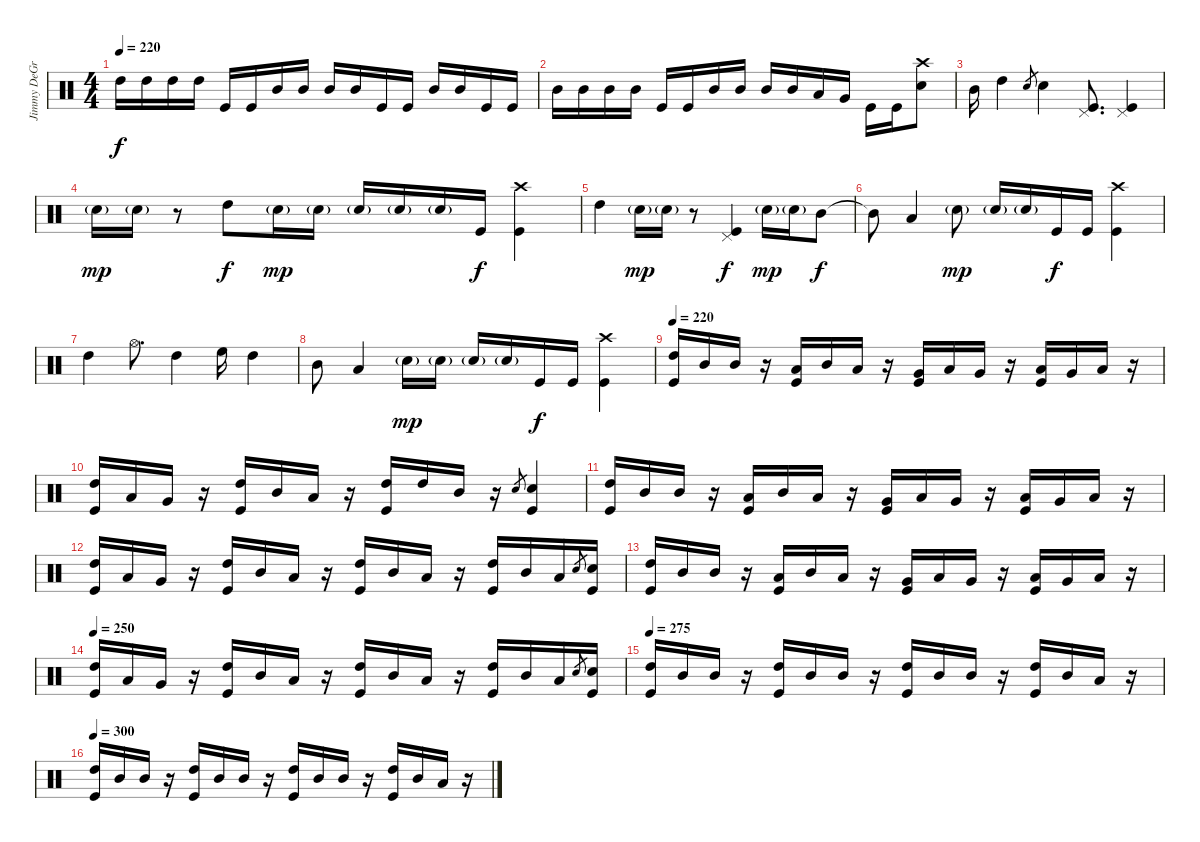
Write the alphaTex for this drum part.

\track ("Jimmy DeGrasso" "Jimmy DeGr") {instrument percussion}
\staff {score}
\articulation defaults
\ts (4 4)
\tempo 220
\clef neutral
\ks c "High Tom (hit)".16{dy f} "High Tom (hit)".16 "High Tom (hit)".16 "High Tom (hit)".16 "Kick (hit)".16 "Kick (hit)".16 "Mid Tom (hit)".16 "Mid Tom (hit)".16 "Mid Tom (hit)".16 "Mid Tom (hit)".16 "Kick (hit)".16 "Kick (hit)".16 "Mid Tom (hit)".16 "Mid Tom (hit)".16 "Kick (hit)".16 "Kick (hit)".16
|
"Mid Tom (hit)".16 "Mid Tom (hit)".16 "Mid Tom (hit)".16 "Mid Tom (hit)".16 "Kick (hit)".16 "Kick (hit)".16 "Mid Tom (hit)".16 "Mid Tom (hit)".16 "Mid Tom (hit)".16 "Mid Tom (hit)".16 "Low Tom (hit)".16 "Very Low Tom (hit)".16 "Kick (hit)".16 "Kick (hit)".16 ("Crash high (hit)" "Snare (hit) 2").8 |
"Mid Tom (hit)".16 "High Tom (hit)".4 "Snare (hit) 2".8{gr} "Snare (hit) 2".4 ("Pedal Hi-Hat (hit)" "Kick (hit)").8{d} ("Pedal Hi-Hat (hit)" "Kick (hit)").4 |
"Snare (hit) 2"{g}.16{dy mp} "Snare (hit) 2"{g}.16 r.8 "High Tom (hit)".8{dy f} "Snare (hit) 2"{g}.16{dy mp} "Snare (hit) 2"{g}.16 "Snare (hit) 2"{g}.16 "Snare (hit) 2"{g}.16 "Snare (hit) 2"{g}.16 "Kick (hit)".16{dy f} ("Crash high (hit)" "Kick (hit)").4 |
"High Tom (hit)".4 "Snare (hit) 2"{g}.16{dy mp} "Snare (hit) 2"{g}.16 r.8 ("Pedal Hi-Hat (hit)" "Kick (hit)").4{dy f} "Snare (hit) 2"{g}.16{dy mp} "Snare (hit) 2"{g}.16 "Mid Tom (hit)".8{dy f} |
"Mid Tom (hit)"{t}.8 "Low Tom (hit)".4 "Snare (hit) 2"{g}.8{dy mp} "Snare (hit) 2"{g}.16 "Snare (hit) 2"{g}.16 "Kick (hit)".16{dy f} "Kick (hit)".16 ("Crash high (hit)" "Kick (hit)").4 |
"High Tom (hit)".4 "Hi-Hat (open)".8{d} "High Tom (hit)".4 "High Floor Tom (hit)".16 "High Tom (hit)".4 |
"Mid Tom (hit)".8 "Low Tom (hit)".4 "Snare (hit) 2"{g}.16{dy mp} "Snare (hit) 2"{g}.16 "Snare (hit) 2"{g}.16 "Snare (hit) 2"{g}.16 "Kick (hit)".16{dy f} "Kick (hit)".16 ("Crash high (hit)" "Kick (hit)").4 |
\tempo 220
("High Tom (hit)" "Kick (hit)").16 "Mid Tom (hit)".16 "Mid Tom (hit)".16 r.16 ("Low Tom (hit)" "Kick (hit)").16 "Mid Tom (hit)".16 "Low Tom (hit)".16 r.16 ("Very Low Tom (hit)" "Kick (hit)").16 "Low Tom (hit)".16 "Very Low Tom (hit)".16 r.16 ("Low Floor Tom (hit)" "Kick (hit)").16 "Very Low Tom (hit)".16 "Low Floor Tom (hit)".16 r.16 |
("High Tom (hit)" "Kick (hit)").16 "Low Tom (hit)".16 "Very Low Tom (hit)".16 r.16 ("High Tom (hit)" "Kick (hit)").16 "Mid Tom (hit)".16 "Low Tom (hit)".16 r.16 ("High Tom (hit)" "Kick (hit)").16 "High Tom (hit)".16 "Mid Tom (hit)".16 r.16 "Snare (hit) 2".8{gr} ("Snare (hit) 2" "Kick (hit)").4 |
("High Tom (hit)" "Kick (hit)").16 "Mid Tom (hit)".16 "Mid Tom (hit)".16 r.16 ("Low Tom (hit)" "Kick (hit)").16 "Mid Tom (hit)".16 "Low Tom (hit)".16 r.16 ("Very Low Tom (hit)" "Kick (hit)").16 "Low Tom (hit)".16 "Very Low Tom (hit)".16 r.16 ("Low Floor Tom (hit)" "Kick (hit)").16 "Very Low Tom (hit)".16 "Low Floor Tom (hit)".16 r.16 |
("High Tom (hit)" "Kick (hit)").16 "Low Tom (hit)".16 "Very Low Tom (hit)".16 r.16 ("High Tom (hit)" "Kick (hit)").16 "Mid Tom (hit)".16 "Low Tom (hit)".16 r.16 ("High Tom (hit)" "Kick (hit)").16 "Mid Tom (hit)".16 "Low Tom (hit)".16 r.16 ("High Tom (hit)" "Kick (hit)").16 "Mid Tom (hit)".16 "Low Tom (hit)".16 "Snare (hit) 2".8{gr} ("Snare (hit) 2" "Kick (hit)").16 |
("High Tom (hit)" "Kick (hit)").16 "Mid Tom (hit)".16 "Mid Tom (hit)".16 r.16 ("Low Tom (hit)" "Kick (hit)").16 "Mid Tom (hit)".16 "Low Tom (hit)".16 r.16 ("Very Low Tom (hit)" "Kick (hit)").16 "Low Tom (hit)".16 "Very Low Tom (hit)".16 r.16 ("Low Floor Tom (hit)" "Kick (hit)").16 "Very Low Tom (hit)".16 "Low Floor Tom (hit)".16 r.16 |
\tempo 250
("High Tom (hit)" "Kick (hit)").16 "Low Tom (hit)".16 "Very Low Tom (hit)".16 r.16 ("High Tom (hit)" "Kick (hit)").16 "Mid Tom (hit)".16 "Low Tom (hit)".16 r.16 ("High Tom (hit)" "Kick (hit)").16 "Mid Tom (hit)".16 "Low Tom (hit)".16 r.16 ("High Tom (hit)" "Kick (hit)").16 "Mid Tom (hit)".16 "Low Tom (hit)".16 "Snare (hit) 2".8{gr} ("Snare (hit) 2" "Kick (hit)").16 |
\tempo 275
("High Tom (hit)" "Kick (hit)").16 "Mid Tom (hit)".16 "Mid Tom (hit)".16 r.16 ("High Tom (hit)" "Kick (hit)").16 "Mid Tom (hit)".16 "Mid Tom (hit)".16 r.16 ("High Tom (hit)" "Kick (hit)").16 "Mid Tom (hit)".16 "Mid Tom (hit)".16 r.16 ("High Tom (hit)" "Kick (hit)").16 "Mid Tom (hit)".16 "Low Tom (hit)".16 r.16 |
\tempo 300
("High Tom (hit)" "Kick (hit)").16 "Mid Tom (hit)".16 "Mid Tom (hit)".16 r.16 ("High Tom (hit)" "Kick (hit)").16 "Mid Tom (hit)".16 "Mid Tom (hit)".16 r.16 ("High Tom (hit)" "Kick (hit)").16 "Mid Tom (hit)".16 "Mid Tom (hit)".16 r.16 ("High Tom (hit)" "Kick (hit)").16 "Mid Tom (hit)".16 "Low Tom (hit)".16 r.16
